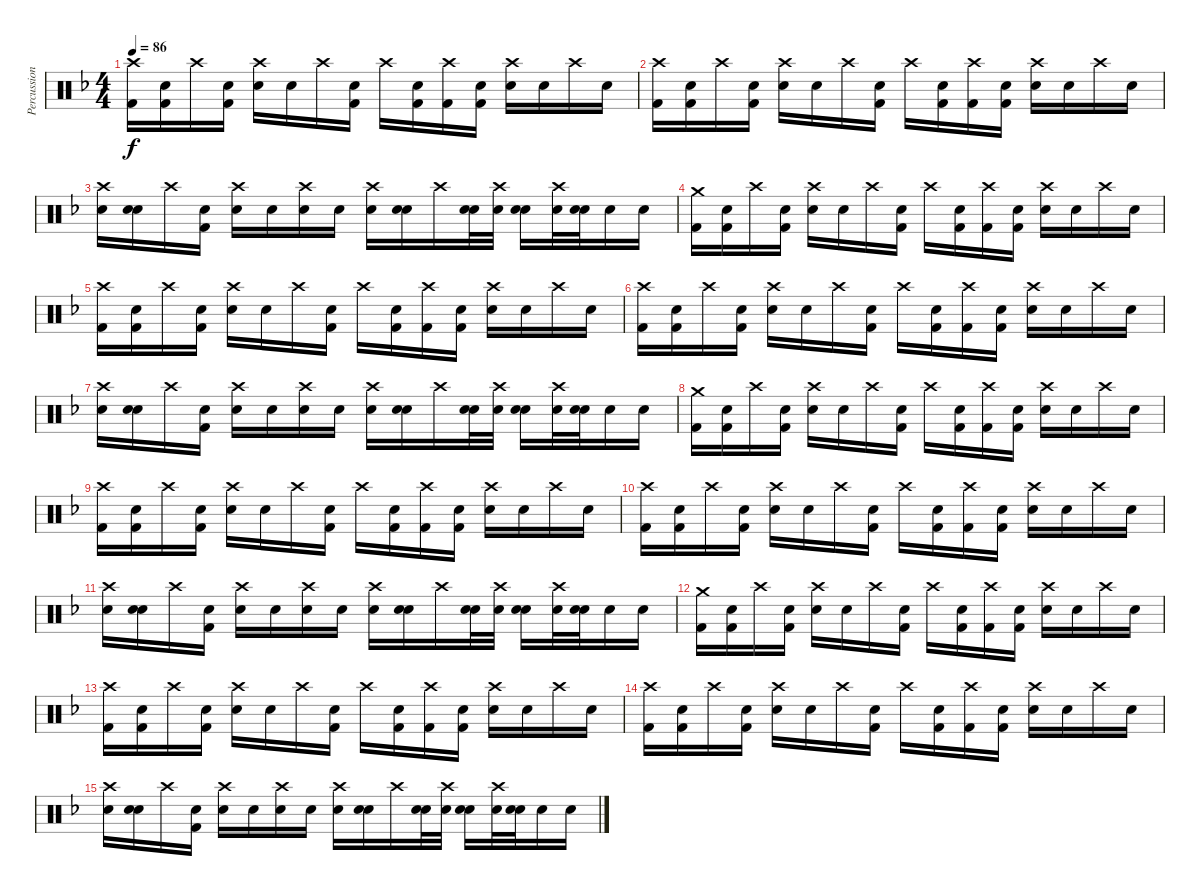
\track ("Percussion" "Percussion") {instrument percussion}
\staff {score}
\articulation defaults
\ts (4 4)
\tempo 86
\clef neutral
\ks f
("Crash high (hit)" "Kick (hit) 2").16{dy f} ("Snare (hit)" "Kick (hit) 2").16 "Crash high (hit)".16 ("Snare (hit)" "Kick (hit) 2").16 ("Crash high (hit)" "Electric Snare (hit)").16 "Snare (hit)".16 "Crash high (hit)".16 ("Snare (hit)" "Kick (hit) 2").16 "Crash high (hit)".16 ("Snare (hit)" "Kick (hit) 2").16 ("Crash high (hit)" "Kick (hit) 2").16 ("Snare (hit)" "Kick (hit) 2").16 ("Crash high (hit)" "Electric Snare (hit)").16 "Snare (hit)".16 "Crash high (hit)".16 "Snare (hit)".16 |
("Crash high (hit)" "Kick (hit) 2").16 ("Snare (hit)" "Kick (hit) 2").16 "Crash high (hit)".16 ("Snare (hit)" "Kick (hit) 2").16 ("Crash high (hit)" "Electric Snare (hit)").16 "Snare (hit)".16 "Crash high (hit)".16 ("Snare (hit)" "Kick (hit) 2").16 "Crash high (hit)".16 ("Snare (hit)" "Kick (hit) 2").16 ("Crash high (hit)" "Kick (hit) 2").16 ("Snare (hit)" "Kick (hit) 2").16 ("Crash high (hit)" "Electric Snare (hit)").16 "Snare (hit)".16 "Crash high (hit)".16 "Snare (hit)".16 |
("Crash high (hit)" "Electric Snare (hit)").16 ("Snare (hit)" "Electric Snare (hit)").16 "Crash high (hit)".16 ("Snare (hit)" "Kick (hit) 2").16 ("Crash high (hit)" "Electric Snare (hit)").16 "Snare (hit)".16 ("Crash high (hit)" "Electric Snare (hit)").16 "Snare (hit)".16 ("Crash high (hit)" "Electric Snare (hit)").16 ("Snare (hit)" "Electric Snare (hit)").16 "Crash high (hit)".16 ("Snare (hit)" "Electric Snare (hit)").32 ("Crash high (hit)" "Electric Snare (hit)").32 ("Snare (hit)" "Electric Snare (hit)").16 ("Crash high (hit)" "Electric Snare (hit)").32 ("Snare (hit)" "Electric Snare (hit)").32 "Electric Snare (hit)".16 "Electric Snare (hit)".16 |
("Crash medium (hit)" "Kick (hit) 2").16 ("Snare (hit)" "Kick (hit) 2").16 "Crash high (hit)".16 ("Snare (hit)" "Kick (hit) 2").16 ("Crash high (hit)" "Electric Snare (hit)").16 "Snare (hit)".16 "Crash high (hit)".16 ("Snare (hit)" "Kick (hit) 2").16 "Crash high (hit)".16 ("Snare (hit)" "Kick (hit) 2").16 ("Crash high (hit)" "Kick (hit) 2").16 ("Snare (hit)" "Kick (hit) 2").16 ("Crash high (hit)" "Electric Snare (hit)").16 "Snare (hit)".16 "Crash high (hit)".16 "Snare (hit)".16 |
("Crash high (hit)" "Kick (hit) 2").16 ("Snare (hit)" "Kick (hit) 2").16 "Crash high (hit)".16 ("Snare (hit)" "Kick (hit) 2").16 ("Crash high (hit)" "Electric Snare (hit)").16 "Snare (hit)".16 "Crash high (hit)".16 ("Snare (hit)" "Kick (hit) 2").16 "Crash high (hit)".16 ("Snare (hit)" "Kick (hit) 2").16 ("Crash high (hit)" "Kick (hit) 2").16 ("Snare (hit)" "Kick (hit) 2").16 ("Crash high (hit)" "Electric Snare (hit)").16 "Snare (hit)".16 "Crash high (hit)".16 "Snare (hit)".16 |
("Crash high (hit)" "Kick (hit) 2").16 ("Snare (hit)" "Kick (hit) 2").16 "Crash high (hit)".16 ("Snare (hit)" "Kick (hit) 2").16 ("Crash high (hit)" "Electric Snare (hit)").16 "Snare (hit)".16 "Crash high (hit)".16 ("Snare (hit)" "Kick (hit) 2").16 "Crash high (hit)".16 ("Snare (hit)" "Kick (hit) 2").16 ("Crash high (hit)" "Kick (hit) 2").16 ("Snare (hit)" "Kick (hit) 2").16 ("Crash high (hit)" "Electric Snare (hit)").16 "Snare (hit)".16 "Crash high (hit)".16 "Snare (hit)".16 |
("Crash high (hit)" "Electric Snare (hit)").16 ("Snare (hit)" "Electric Snare (hit)").16 "Crash high (hit)".16 ("Snare (hit)" "Kick (hit) 2").16 ("Crash high (hit)" "Electric Snare (hit)").16 "Snare (hit)".16 ("Crash high (hit)" "Electric Snare (hit)").16 "Snare (hit)".16 ("Crash high (hit)" "Electric Snare (hit)").16 ("Snare (hit)" "Electric Snare (hit)").16 "Crash high (hit)".16 ("Snare (hit)" "Electric Snare (hit)").32 ("Crash high (hit)" "Electric Snare (hit)").32 ("Snare (hit)" "Electric Snare (hit)").16 ("Crash high (hit)" "Electric Snare (hit)").32 ("Snare (hit)" "Electric Snare (hit)").32 "Electric Snare (hit)".16 "Electric Snare (hit)".16 |
("Crash medium (hit)" "Kick (hit) 2").16 ("Snare (hit)" "Kick (hit) 2").16 "Crash high (hit)".16 ("Snare (hit)" "Kick (hit) 2").16 ("Crash high (hit)" "Electric Snare (hit)").16 "Snare (hit)".16 "Crash high (hit)".16 ("Snare (hit)" "Kick (hit) 2").16 "Crash high (hit)".16 ("Snare (hit)" "Kick (hit) 2").16 ("Crash high (hit)" "Kick (hit) 2").16 ("Snare (hit)" "Kick (hit) 2").16 ("Crash high (hit)" "Electric Snare (hit)").16 "Snare (hit)".16 "Crash high (hit)".16 "Snare (hit)".16 |
("Crash high (hit)" "Kick (hit) 2").16 ("Snare (hit)" "Kick (hit) 2").16 "Crash high (hit)".16 ("Snare (hit)" "Kick (hit) 2").16 ("Crash high (hit)" "Electric Snare (hit)").16 "Snare (hit)".16 "Crash high (hit)".16 ("Snare (hit)" "Kick (hit) 2").16 "Crash high (hit)".16 ("Snare (hit)" "Kick (hit) 2").16 ("Crash high (hit)" "Kick (hit) 2").16 ("Snare (hit)" "Kick (hit) 2").16 ("Crash high (hit)" "Electric Snare (hit)").16 "Snare (hit)".16 "Crash high (hit)".16 "Snare (hit)".16 |
("Crash high (hit)" "Kick (hit) 2").16{volume 5} ("Snare (hit)" "Kick (hit) 2").16 "Crash high (hit)".16 ("Snare (hit)" "Kick (hit) 2").16 ("Crash high (hit)" "Electric Snare (hit)").16 "Snare (hit)".16 "Crash high (hit)".16 ("Snare (hit)" "Kick (hit) 2").16 "Crash high (hit)".16 ("Snare (hit)" "Kick (hit) 2").16 ("Crash high (hit)" "Kick (hit) 2").16 ("Snare (hit)" "Kick (hit) 2").16 ("Crash high (hit)" "Electric Snare (hit)").16 "Snare (hit)".16 "Crash high (hit)".16 "Snare (hit)".16 |
("Crash high (hit)" "Electric Snare (hit)").16 ("Snare (hit)" "Electric Snare (hit)").16 "Crash high (hit)".16 ("Snare (hit)" "Kick (hit) 2").16 ("Crash high (hit)" "Electric Snare (hit)").16 "Snare (hit)".16 ("Crash high (hit)" "Electric Snare (hit)").16 "Snare (hit)".16 ("Crash high (hit)" "Electric Snare (hit)").16 ("Snare (hit)" "Electric Snare (hit)").16 "Crash high (hit)".16 ("Snare (hit)" "Electric Snare (hit)").32 ("Crash high (hit)" "Electric Snare (hit)").32 ("Snare (hit)" "Electric Snare (hit)").16 ("Crash high (hit)" "Electric Snare (hit)").32 ("Snare (hit)" "Electric Snare (hit)").32 "Electric Snare (hit)".16 "Electric Snare (hit)".16 |
("Crash medium (hit)" "Kick (hit) 2").16 ("Snare (hit)" "Kick (hit) 2").16 "Crash high (hit)".16 ("Snare (hit)" "Kick (hit) 2").16 ("Crash high (hit)" "Electric Snare (hit)").16 "Snare (hit)".16 "Crash high (hit)".16 ("Snare (hit)" "Kick (hit) 2").16 "Crash high (hit)".16 ("Snare (hit)" "Kick (hit) 2").16 ("Crash high (hit)" "Kick (hit) 2").16 ("Snare (hit)" "Kick (hit) 2").16 ("Crash high (hit)" "Electric Snare (hit)").16 "Snare (hit)".16 "Crash high (hit)".16 "Snare (hit)".16 |
("Crash high (hit)" "Kick (hit) 2").16 ("Snare (hit)" "Kick (hit) 2").16 "Crash high (hit)".16 ("Snare (hit)" "Kick (hit) 2").16 ("Crash high (hit)" "Electric Snare (hit)").16 "Snare (hit)".16 "Crash high (hit)".16 ("Snare (hit)" "Kick (hit) 2").16 "Crash high (hit)".16 ("Snare (hit)" "Kick (hit) 2").16 ("Crash high (hit)" "Kick (hit) 2").16 ("Snare (hit)" "Kick (hit) 2").16 ("Crash high (hit)" "Electric Snare (hit)").16 "Snare (hit)".16 "Crash high (hit)".16 "Snare (hit)".16 |
("Crash high (hit)" "Kick (hit) 2").16 ("Snare (hit)" "Kick (hit) 2").16{volume 2} "Crash high (hit)".16 ("Snare (hit)" "Kick (hit) 2").16 ("Crash high (hit)" "Electric Snare (hit)").16 "Snare (hit)".16 "Crash high (hit)".16 ("Snare (hit)" "Kick (hit) 2").16 "Crash high (hit)".16 ("Snare (hit)" "Kick (hit) 2").16 ("Crash high (hit)" "Kick (hit) 2").16 ("Snare (hit)" "Kick (hit) 2").16 ("Crash high (hit)" "Electric Snare (hit)").16 "Snare (hit)".16 "Crash high (hit)".16 "Snare (hit)".16 |
("Crash high (hit)" "Electric Snare (hit)").16 ("Snare (hit)" "Electric Snare (hit)").16 "Crash high (hit)".16 ("Snare (hit)" "Kick (hit) 2").16 ("Crash high (hit)" "Electric Snare (hit)").16 "Snare (hit)".16 ("Crash high (hit)" "Electric Snare (hit)").16 "Snare (hit)".16 ("Crash high (hit)" "Electric Snare (hit)").16 ("Snare (hit)" "Electric Snare (hit)").16 "Crash high (hit)".16 ("Snare (hit)" "Electric Snare (hit)").32 ("Crash high (hit)" "Electric Snare (hit)").32 ("Snare (hit)" "Electric Snare (hit)").16 ("Crash high (hit)" "Electric Snare (hit)").32 ("Snare (hit)" "Electric Snare (hit)").32 "Electric Snare (hit)".16 "Electric Snare (hit)".16
